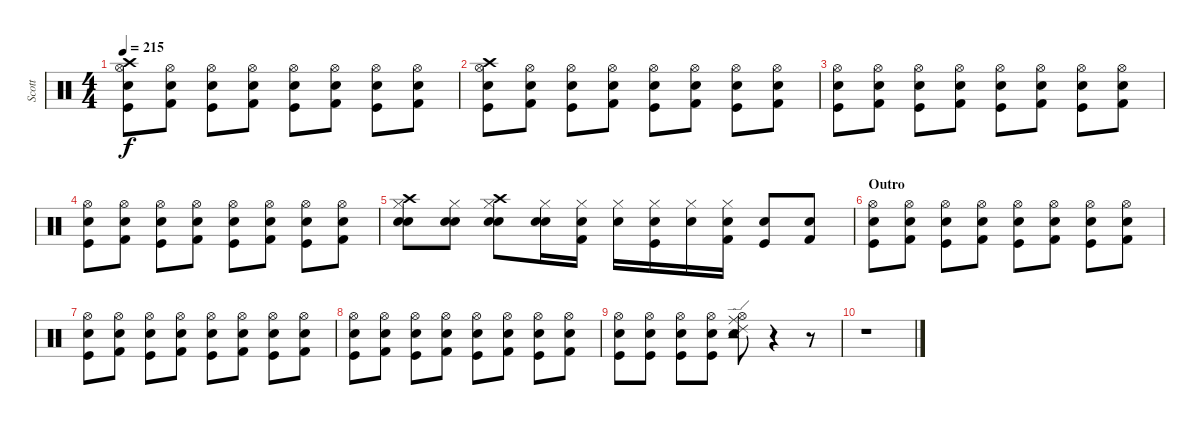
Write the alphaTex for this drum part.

\track ("Scott" "Scott") {instrument percussion}
\staff {score}
\articulation defaults
\ts (4 4)
\tempo 215
\clef neutral
\ks c
("Crash high (hit)" "Hi-Hat (open)" "Snare (hit) 2" "Kick (hit)").8{dy f} ("Hi-Hat (open)" "Electric Snare (hit)" "Kick (hit) 2").8 ("Hi-Hat (open)" "Snare (hit) 2" "Kick (hit)").8 ("Hi-Hat (open)" "Electric Snare (hit)" "Kick (hit) 2").8 ("Hi-Hat (open)" "Snare (hit) 2" "Kick (hit)").8 ("Hi-Hat (open)" "Electric Snare (hit)" "Kick (hit) 2").8 ("Hi-Hat (open)" "Snare (hit) 2" "Kick (hit)").8 ("Hi-Hat (open)" "Electric Snare (hit)" "Kick (hit) 2").8 |
("Crash high (hit)" "Hi-Hat (open)" "Snare (hit) 2" "Kick (hit)").8 ("Hi-Hat (open)" "Electric Snare (hit)" "Kick (hit) 2").8 ("Hi-Hat (open)" "Snare (hit) 2" "Kick (hit)").8 ("Hi-Hat (open)" "Electric Snare (hit)" "Kick (hit) 2").8 ("Hi-Hat (open)" "Snare (hit) 2" "Kick (hit)").8 ("Hi-Hat (open)" "Electric Snare (hit)" "Kick (hit) 2").8 ("Hi-Hat (open)" "Snare (hit) 2" "Kick (hit)").8 ("Hi-Hat (open)" "Electric Snare (hit)" "Kick (hit) 2").8 |
("Hi-Hat (open)" "Snare (hit) 2" "Kick (hit)").8 ("Hi-Hat (open)" "Electric Snare (hit)" "Kick (hit) 2").8 ("Hi-Hat (open)" "Snare (hit) 2" "Kick (hit)").8 ("Hi-Hat (open)" "Electric Snare (hit)" "Kick (hit) 2").8 ("Hi-Hat (open)" "Snare (hit) 2" "Kick (hit)").8 ("Hi-Hat (open)" "Electric Snare (hit)" "Kick (hit) 2").8 ("Hi-Hat (open)" "Snare (hit) 2" "Kick (hit)").8 ("Hi-Hat (open)" "Electric Snare (hit)" "Kick (hit) 2").8 |
("Hi-Hat (open)" "Snare (hit) 2" "Kick (hit)").8 ("Hi-Hat (open)" "Electric Snare (hit)" "Kick (hit) 2").8 ("Hi-Hat (open)" "Snare (hit) 2" "Kick (hit)").8 ("Hi-Hat (open)" "Electric Snare (hit)" "Kick (hit) 2").8 ("Hi-Hat (open)" "Snare (hit) 2" "Kick (hit)").8 ("Hi-Hat (open)" "Electric Snare (hit)" "Kick (hit) 2").8 ("Hi-Hat (open)" "Snare (hit) 2" "Kick (hit)").8 ("Hi-Hat (open)" "Electric Snare (hit)" "Kick (hit) 2").8 |
("Snare (hit) 2" "Electric Snare (hit)" "Crash high (hit)" "Hi-Hat (closed)").8 ("Snare (hit) 2" "Electric Snare (hit)" "Hi-Hat (closed)").8 ("Snare (hit) 2" "Electric Snare (hit)" "Crash high (hit)" "Hi-Hat (closed)").8 ("Snare (hit) 2" "Electric Snare (hit)" "Hi-Hat (closed)").16 ("Kick (hit) 2" "Electric Snare (hit)" "Hi-Hat (closed)").16 ("Snare (hit) 2" "Hi-Hat (closed)").16 ("Kick (hit)" "Electric Snare (hit)" "Hi-Hat (closed)").16 ("Snare (hit) 2" "Hi-Hat (closed)").16 ("Kick (hit) 2" "Electric Snare (hit)" "Hi-Hat (closed)").16 ("Snare (hit) 2" "Kick (hit)").8 ("Snare (hit) 2" "Kick (hit) 2").8 |
\section ("" "Outro")
("Hi-Hat (open)" "Snare (hit) 2" "Kick (hit)").8 ("Hi-Hat (open)" "Electric Snare (hit)" "Kick (hit) 2").8 ("Hi-Hat (open)" "Snare (hit) 2" "Kick (hit)").8 ("Hi-Hat (open)" "Electric Snare (hit)" "Kick (hit) 2").8 ("Hi-Hat (open)" "Snare (hit) 2" "Kick (hit)").8 ("Hi-Hat (open)" "Electric Snare (hit)" "Kick (hit) 2").8 ("Hi-Hat (open)" "Snare (hit) 2" "Kick (hit)").8 ("Hi-Hat (open)" "Electric Snare (hit)" "Kick (hit) 2").8 |
("Hi-Hat (open)" "Snare (hit) 2" "Kick (hit)").8 ("Hi-Hat (open)" "Electric Snare (hit)" "Kick (hit) 2").8 ("Hi-Hat (open)" "Snare (hit) 2" "Kick (hit)").8 ("Hi-Hat (open)" "Electric Snare (hit)" "Kick (hit) 2").8 ("Hi-Hat (open)" "Snare (hit) 2" "Kick (hit)").8 ("Hi-Hat (open)" "Electric Snare (hit)" "Kick (hit) 2").8 ("Hi-Hat (open)" "Snare (hit) 2" "Kick (hit)").8 ("Hi-Hat (open)" "Electric Snare (hit)" "Kick (hit) 2").8 |
("Hi-Hat (open)" "Snare (hit) 2" "Kick (hit)").8 ("Hi-Hat (open)" "Electric Snare (hit)" "Kick (hit) 2").8 ("Hi-Hat (open)" "Snare (hit) 2" "Kick (hit)").8 ("Hi-Hat (open)" "Electric Snare (hit)" "Kick (hit) 2").8 ("Hi-Hat (open)" "Snare (hit) 2" "Kick (hit)").8 ("Hi-Hat (open)" "Electric Snare (hit)" "Kick (hit) 2").8 ("Hi-Hat (open)" "Snare (hit) 2" "Kick (hit)").8 ("Hi-Hat (open)" "Electric Snare (hit)" "Kick (hit) 2").8 |
("Hi-Hat (open)" "Snare (hit) 2" "Kick (hit)").8 ("Hi-Hat (open)" "Snare (hit) 2" "Kick (hit)").8 ("Hi-Hat (open)" "Snare (hit) 2" "Kick (hit)").8 ("Hi-Hat (open)" "Snare (hit) 2" "Kick (hit)").8 ("Ride (edge) 2" "Tambourine (hit)" "Hi-Hat (open)" "Tambourine (hit)" "Ride (middle)" "Snare (hit) 2").8 r.4 r.8 |
r.1
